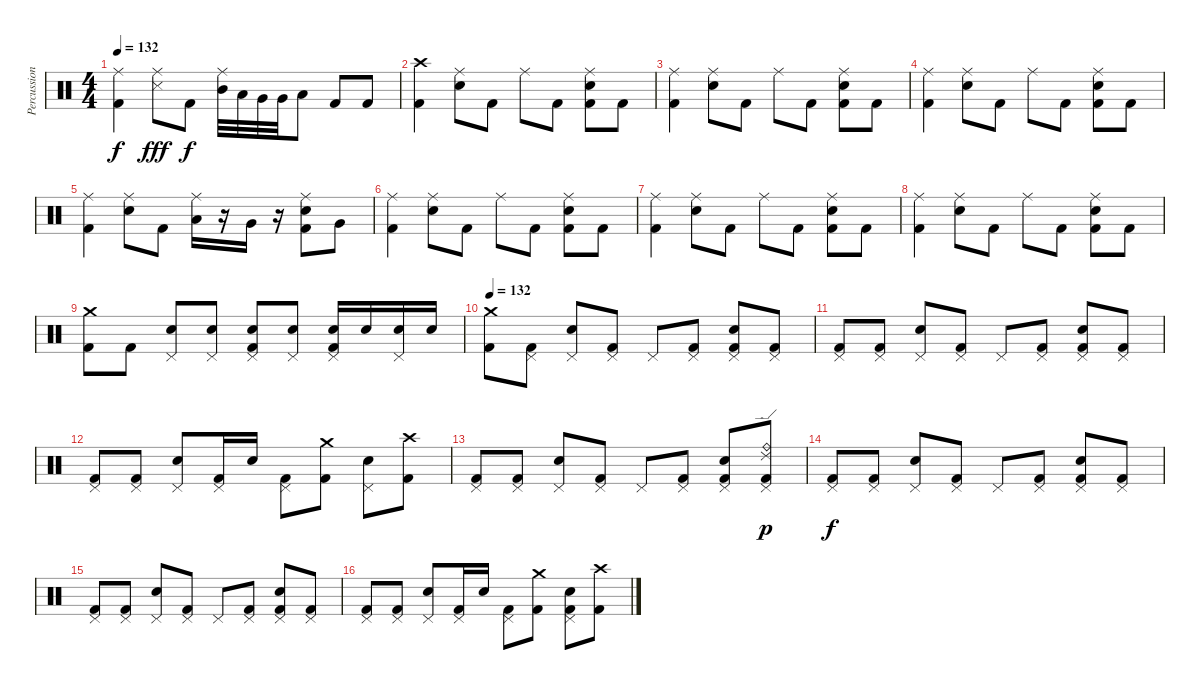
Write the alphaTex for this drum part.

\track ("Percussions" "Percussion") {instrument percussion}
\staff {score}
\articulation defaults
\ts (4 4)
\tempo 132
\clef neutral
\ks c
("Ride (middle)" "Kick (hit) 2").4{dy f} ("Ride (middle)" "Snare (side stick) 3").8{dy fff} "Kick (hit) 2".8{dy f} ("Ride (middle)" "Mid Tom (hit)").32 "Low Tom (hit)".32 "Very Low Tom (hit)".32 "Very Low Tom (hit)".32 "Low Floor Tom (hit)".8 "Kick (hit) 2".8 "Kick (hit) 2".8 |
("Crash high (hit)" "Kick (hit) 2").4 ("Ride (middle)" "Electric Snare (hit)").8 "Kick (hit) 2".8 "Ride (middle)".8 "Kick (hit) 2".8 ("Ride (middle)" "Electric Snare (hit)" "Kick (hit) 2").8 "Kick (hit) 2".8 |
("Ride (middle)" "Kick (hit) 2").4 ("Ride (middle)" "Electric Snare (hit)").8 "Kick (hit) 2".8 "Ride (middle)".8 "Kick (hit) 2".8 ("Ride (middle)" "Electric Snare (hit)" "Kick (hit) 2").8 "Kick (hit) 2".8 |
("Ride (middle)" "Kick (hit) 2").4 ("Ride (middle)" "Electric Snare (hit)").8 "Kick (hit) 2".8 "Ride (middle)".8 "Kick (hit) 2".8 ("Ride (middle)" "Electric Snare (hit)" "Kick (hit) 2").8 "Kick (hit) 2".8 |
("Ride (middle)" "Kick (hit) 2").4 ("Ride (middle)" "Electric Snare (hit)").8 "Kick (hit) 2".8 ("Ride (middle)" "Low Tom (hit)").16 r.16 "Very Low Tom (hit)".16 r.16 ("Ride (middle)" "Electric Snare (hit)" "Kick (hit) 2").8 "Very Low Tom (hit)".8 |
("Ride (middle)" "Kick (hit) 2").4 ("Ride (middle)" "Electric Snare (hit)").8 "Kick (hit) 2".8 "Ride (middle)".8 "Kick (hit) 2".8 ("Ride (middle)" "Electric Snare (hit)" "Kick (hit) 2").8 "Kick (hit) 2".8 |
("Ride (middle)" "Kick (hit) 2").4 ("Ride (middle)" "Electric Snare (hit)").8 "Kick (hit) 2".8 "Ride (middle)".8 "Kick (hit) 2".8 ("Ride (middle)" "Electric Snare (hit)" "Kick (hit) 2").8 "Kick (hit) 2".8 |
("Ride (middle)" "Kick (hit) 2").4 ("Ride (middle)" "Electric Snare (hit)").8 "Kick (hit) 2".8 "Ride (middle)".8 "Kick (hit) 2".8 ("Ride (middle)" "Electric Snare (hit)" "Kick (hit) 2").8 "Kick (hit) 2".8 |
("Crash medium (hit)" "Kick (hit) 2").8 "Kick (hit) 2".8 ("Pedal Hi-Hat (hit)" "Electric Snare (hit)").8 ("Pedal Hi-Hat (hit)" "Electric Snare (hit)").8 ("Pedal Hi-Hat (hit)" "Electric Snare (hit)" "Kick (hit) 2").8 ("Pedal Hi-Hat (hit)" "Electric Snare (hit)").8 ("Pedal Hi-Hat (hit)" "Electric Snare (hit)" "Kick (hit) 2").16 "Electric Snare (hit)".16 ("Pedal Hi-Hat (hit)" "Electric Snare (hit)").16 "Electric Snare (hit)".16 |
\tempo 132
("Crash medium (hit)" "Kick (hit) 2").8 ("Pedal Hi-Hat (hit)" "Kick (hit) 2").8 ("Pedal Hi-Hat (hit)" "Electric Snare (hit)").8 ("Pedal Hi-Hat (hit)" "Kick (hit) 2").8 "Pedal Hi-Hat (hit)".8 ("Pedal Hi-Hat (hit)" "Kick (hit) 2").8 ("Pedal Hi-Hat (hit)" "Electric Snare (hit)" "Kick (hit) 2").8 ("Pedal Hi-Hat (hit)" "Kick (hit) 2").8 |
("Pedal Hi-Hat (hit)" "Kick (hit) 2").8 ("Pedal Hi-Hat (hit)" "Kick (hit) 2").8 ("Pedal Hi-Hat (hit)" "Electric Snare (hit)").8 ("Pedal Hi-Hat (hit)" "Kick (hit) 2").8 "Pedal Hi-Hat (hit)".8 ("Pedal Hi-Hat (hit)" "Kick (hit) 2").8 ("Pedal Hi-Hat (hit)" "Electric Snare (hit)" "Kick (hit) 2").8 ("Pedal Hi-Hat (hit)" "Kick (hit) 2").8 |
("Pedal Hi-Hat (hit)" "Kick (hit) 2").8 ("Pedal Hi-Hat (hit)" "Kick (hit) 2").8 ("Pedal Hi-Hat (hit)" "Electric Snare (hit)").8 ("Pedal Hi-Hat (hit)" "Kick (hit) 2").16 "Electric Snare (hit)".16 ("Pedal Hi-Hat (hit)" "Kick (hit) 2").8 ("Crash medium (hit)" "Kick (hit) 2").8 ("Pedal Hi-Hat (hit)" "Electric Snare (hit)").8 ("Crash high (hit)" "Kick (hit) 2").8 |
("Pedal Hi-Hat (hit)" "Kick (hit) 2").8 ("Pedal Hi-Hat (hit)" "Kick (hit) 2").8 ("Pedal Hi-Hat (hit)" "Electric Snare (hit)").8 ("Pedal Hi-Hat (hit)" "Kick (hit) 2").8 "Pedal Hi-Hat (hit)".8 ("Pedal Hi-Hat (hit)" "Kick (hit) 2").8 ("Pedal Hi-Hat (hit)" "Electric Snare (hit)" "Kick (hit) 2").8 ("Pedal Hi-Hat (hit)" "Ride (bell)" "Ride (edge) 2" "Kick (hit) 2").8{dy p} |
("Pedal Hi-Hat (hit)" "Kick (hit) 2").8{dy f} ("Pedal Hi-Hat (hit)" "Kick (hit) 2").8 ("Pedal Hi-Hat (hit)" "Electric Snare (hit)").8 ("Pedal Hi-Hat (hit)" "Kick (hit) 2").8 "Pedal Hi-Hat (hit)".8 ("Pedal Hi-Hat (hit)" "Kick (hit) 2").8 ("Pedal Hi-Hat (hit)" "Electric Snare (hit)" "Kick (hit) 2").8 ("Pedal Hi-Hat (hit)" "Kick (hit) 2").8 |
("Pedal Hi-Hat (hit)" "Kick (hit) 2").8 ("Pedal Hi-Hat (hit)" "Kick (hit) 2").8 ("Pedal Hi-Hat (hit)" "Electric Snare (hit)").8 ("Pedal Hi-Hat (hit)" "Kick (hit) 2").8 "Pedal Hi-Hat (hit)".8 ("Pedal Hi-Hat (hit)" "Kick (hit) 2").8 ("Pedal Hi-Hat (hit)" "Electric Snare (hit)" "Kick (hit) 2").8 ("Pedal Hi-Hat (hit)" "Kick (hit) 2").8 |
("Pedal Hi-Hat (hit)" "Kick (hit) 2").8 ("Pedal Hi-Hat (hit)" "Kick (hit) 2").8 ("Pedal Hi-Hat (hit)" "Electric Snare (hit)").8 ("Pedal Hi-Hat (hit)" "Kick (hit) 2").16 "Electric Snare (hit)".16 ("Pedal Hi-Hat (hit)" "Kick (hit) 2").8 ("Crash medium (hit)" "Kick (hit) 2").8 ("Pedal Hi-Hat (hit)" "Electric Snare (hit)" "Kick (hit) 2").8 ("Crash high (hit)" "Kick (hit) 2").8
